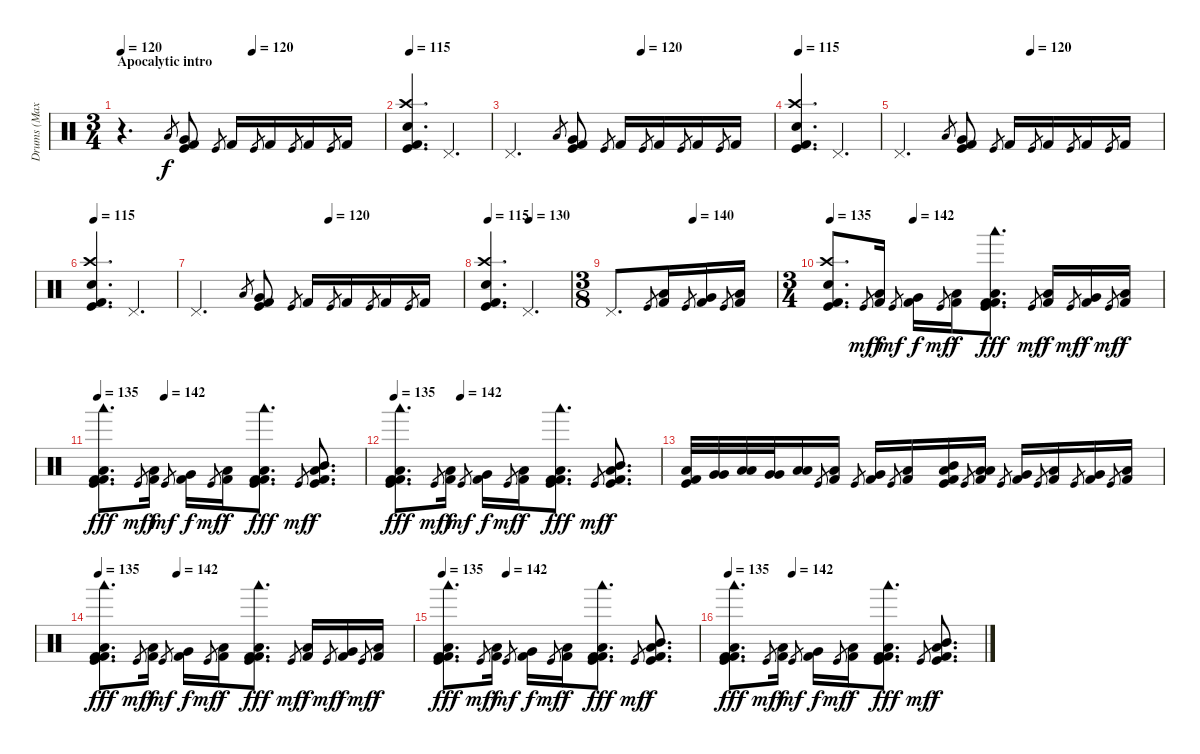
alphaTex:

\track ("Drums (Max overdub)" "Drums (Max") {instrument percussion}
\staff {score}
\articulation defaults
\ts (3 4)
\section ("" "Apocalytic intro")
\tempo 120
\tempo (120 0.5)
\clef neutral
\ks c
r.4{d dy f} "Low Tom (hit)".8{gr} ("Very Low Tom (hit)" "Kick (hit)" "Kick (hit) 2").8 "Kick (hit)".8{gr} "Kick (hit) 2".16 "Kick (hit)".8{gr} "Kick (hit) 2".16 "Kick (hit)".8{gr} "Kick (hit) 2".16 "Kick (hit)".8{gr} "Kick (hit) 2".16 |
\tempo 115
("Crash high (hit)" "Snare (hit) 2" "Kick (hit)" "Kick (hit) 2").4{d} "Pedal Hi-Hat (hit)".4{d} |
\tempo (120 0.5)
"Pedal Hi-Hat (hit)".4{d} "Low Tom (hit)".8{gr} ("Very Low Tom (hit)" "Kick (hit)" "Kick (hit) 2").8 "Kick (hit)".8{gr} "Kick (hit) 2".16 "Kick (hit)".8{gr} "Kick (hit) 2".16 "Kick (hit)".8{gr} "Kick (hit) 2".16 "Kick (hit)".8{gr} "Kick (hit) 2".16 |
\tempo 115
("Crash high (hit)" "Snare (hit) 2" "Kick (hit)" "Kick (hit) 2").4{d} "Pedal Hi-Hat (hit)".4{d} |
\tempo (120 0.5)
"Pedal Hi-Hat (hit)".4{d} "Low Tom (hit)".8{gr} ("Very Low Tom (hit)" "Kick (hit)" "Kick (hit) 2").8 "Kick (hit)".8{gr} "Kick (hit) 2".16 "Kick (hit)".8{gr} "Kick (hit) 2".16 "Kick (hit)".8{gr} "Kick (hit) 2".16 "Kick (hit)".8{gr} "Kick (hit) 2".16 |
\tempo 115
("Crash high (hit)" "Snare (hit) 2" "Kick (hit)" "Kick (hit) 2").4{d} "Pedal Hi-Hat (hit)".4{d} |
\tempo (120 0.5)
"Pedal Hi-Hat (hit)".4{d} "Low Tom (hit)".8{gr} ("Very Low Tom (hit)" "Kick (hit)" "Kick (hit) 2").8 "Kick (hit)".8{gr} "Kick (hit) 2".16 "Kick (hit)".8{gr} "Kick (hit) 2".16 "Kick (hit)".8{gr} "Kick (hit) 2".16 "Kick (hit)".8{gr} "Kick (hit) 2".16 |
\tempo 115
\tempo (130 0.5)
("Crash high (hit)" "Snare (hit) 2" "Kick (hit)" "Kick (hit) 2").4{d} "Pedal Hi-Hat (hit)".4{d} |
\ts (3 8)
\tempo (140 0.5)
"Pedal Hi-Hat (hit)".8{d} "Kick (hit)".8{gr} ("Low Tom (hit)" "Kick (hit) 2").16 "Kick (hit)".8{gr} ("Very Low Tom (hit)" "Kick (hit) 2").16 "Kick (hit)".8{gr} ("Low Floor Tom (hit)" "Kick (hit) 2").16 |
\ts (3 4)
\tempo 135
\tempo (142 0.25)
("Crash high (hit)" "Snare (hit) 2" "Kick (hit)" "Kick (hit) 2").8{d} "Kick (hit)".8{gr dy mf} ("Low Tom (hit)" "Kick (hit) 2").16{dy f} "Kick (hit)".8{gr dy mf} ("Very Low Tom (hit)" "Kick (hit) 2").16{dy f} "Kick (hit)".8{gr dy mf} ("Low Tom (hit)" "Kick (hit) 2").16{dy f} ("Woodblock low (hit)" "Low Floor Tom (hit)" "Kick (hit)" "Kick (hit) 2" "Kick (hit) 2").8{d dy fff} "Kick (hit)".8{gr dy mf} ("Low Tom (hit)" "Kick (hit) 2").16{dy f} "Kick (hit)".8{gr dy mf} ("Very Low Tom (hit)" "Kick (hit) 2").16{dy f} "Kick (hit)".8{gr dy mf} ("Low Tom (hit)" "Kick (hit) 2").16{dy f} |
\tempo 135
\tempo (142 0.25)
("Woodblock low (hit)" "Low Floor Tom (hit)" "Kick (hit)" "Kick (hit) 2" "Kick (hit) 2").8{d dy fff} "Kick (hit)".8{gr dy mf} ("Low Tom (hit)" "Kick (hit) 2").16{dy f} "Kick (hit)".8{gr dy mf} ("Very Low Tom (hit)" "Kick (hit) 2").16{dy f} "Kick (hit)".8{gr dy mf} ("Low Tom (hit)" "Kick (hit) 2").16{dy f} ("Woodblock low (hit)" "Low Floor Tom (hit)" "Kick (hit)" "Kick (hit) 2" "Kick (hit) 2").8{d dy fff} "Kick (hit)".8{gr dy mf} ("Low Floor Tom (hit)" "Mid Tom (hit)" "Kick (hit)" "Kick (hit) 2").8{d dy f} |
\tempo 135
\tempo (142 0.25)
("Woodblock low (hit)" "Low Floor Tom (hit)" "Kick (hit)" "Kick (hit) 2" "Kick (hit) 2").8{d dy fff} "Kick (hit)".8{gr dy mf} ("Low Tom (hit)" "Kick (hit) 2").16{dy f} "Kick (hit)".8{gr dy mf} ("Very Low Tom (hit)" "Kick (hit) 2").16{dy f} "Kick (hit)".8{gr dy mf} ("Low Tom (hit)" "Kick (hit) 2").16{dy f} ("Woodblock low (hit)" "Low Floor Tom (hit)" "Kick (hit)" "Kick (hit) 2" "Kick (hit) 2").8{d dy fff} "Kick (hit)".8{gr dy mf} ("Low Floor Tom (hit)" "Mid Tom (hit)" "Kick (hit)" "Kick (hit) 2").8{d dy f} |
("Low Tom (hit)" "Kick (hit)" "Kick (hit) 2").32 ("Very Low Tom (hit)" "Very Low Tom (hit)").32 ("Low Tom (hit)" "Low Tom (hit)").32 ("Very Low Tom (hit)" "Very Low Tom (hit)").32 ("Low Floor Tom (hit)" "Low Floor Tom (hit)").16 "Kick (hit)".8{gr} ("Low Tom (hit)" "Kick (hit) 2").16 "Kick (hit)".8{gr} ("Very Low Tom (hit)" "Kick (hit) 2").16 "Kick (hit)".8{gr} ("Low Floor Tom (hit)" "Kick (hit) 2").16 ("Low Tom (hit)" "Mid Tom (hit)" "Kick (hit)" "Kick (hit) 2").16 "Kick (hit)".8{gr} ("Low Tom (hit)" "Low Tom (hit)" "Kick (hit) 2").16 "Kick (hit)".8{gr} ("Very Low Tom (hit)" "Kick (hit) 2").16 "Kick (hit)".8{gr} ("Low Tom (hit)" "Kick (hit) 2").16 "Kick (hit)".8{gr} ("Very Low Tom (hit)" "Kick (hit) 2").16 "Kick (hit)".8{gr} ("Low Floor Tom (hit)" "Kick (hit) 2").16 |
\tempo 135
\tempo (142 0.25)
("Woodblock low (hit)" "Low Floor Tom (hit)" "Kick (hit)" "Kick (hit) 2" "Kick (hit) 2").8{d dy fff} "Kick (hit)".8{gr dy mf} ("Low Tom (hit)" "Kick (hit) 2").16{dy f} "Kick (hit)".8{gr dy mf} ("Very Low Tom (hit)" "Kick (hit) 2").16{dy f} "Kick (hit)".8{gr dy mf} ("Low Tom (hit)" "Kick (hit) 2").16{dy f} ("Woodblock low (hit)" "Low Floor Tom (hit)" "Kick (hit)" "Kick (hit) 2" "Kick (hit) 2").8{d dy fff} "Kick (hit)".8{gr dy mf} ("Low Tom (hit)" "Kick (hit) 2").16{dy f} "Kick (hit)".8{gr dy mf} ("Very Low Tom (hit)" "Kick (hit) 2").16{dy f} "Kick (hit)".8{gr dy mf} ("Low Tom (hit)" "Kick (hit) 2").16{dy f} |
\tempo 135
\tempo (142 0.25)
("Woodblock low (hit)" "Low Floor Tom (hit)" "Kick (hit)" "Kick (hit) 2" "Kick (hit) 2").8{d dy fff} "Kick (hit)".8{gr dy mf} ("Low Tom (hit)" "Kick (hit) 2").16{dy f} "Kick (hit)".8{gr dy mf} ("Very Low Tom (hit)" "Kick (hit) 2").16{dy f} "Kick (hit)".8{gr dy mf} ("Low Tom (hit)" "Kick (hit) 2").16{dy f} ("Woodblock low (hit)" "Low Floor Tom (hit)" "Kick (hit)" "Kick (hit) 2" "Kick (hit) 2").8{d dy fff} "Kick (hit)".8{gr dy mf} ("Low Floor Tom (hit)" "Mid Tom (hit)" "Kick (hit)" "Kick (hit) 2").8{d dy f} |
\tempo 135
\tempo (142 0.25)
("Woodblock low (hit)" "Low Floor Tom (hit)" "Kick (hit)" "Kick (hit) 2" "Kick (hit) 2").8{d dy fff} "Kick (hit)".8{gr dy mf} ("Low Tom (hit)" "Kick (hit) 2").16{dy f} "Kick (hit)".8{gr dy mf} ("Very Low Tom (hit)" "Kick (hit) 2").16{dy f} "Kick (hit)".8{gr dy mf} ("Low Tom (hit)" "Kick (hit) 2").16{dy f} ("Woodblock low (hit)" "Low Floor Tom (hit)" "Kick (hit)" "Kick (hit) 2" "Kick (hit) 2").8{d dy fff} "Kick (hit)".8{gr dy mf} ("Low Floor Tom (hit)" "Mid Tom (hit)" "Kick (hit)" "Kick (hit) 2").8{d dy f}
